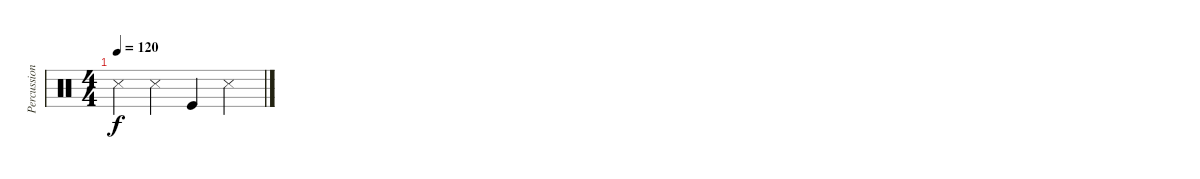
\track ("Percussion" "Percussion") {instrument percussion}
\staff {score}
\articulation defaults
\ts (4 4)
\tempo 120
\clef neutral
\ks c "Snare (side stick) 3".4{dy f} "Snare (side stick) 3".4 "Kick (hit)".4 "Snare (side stick) 3".4
